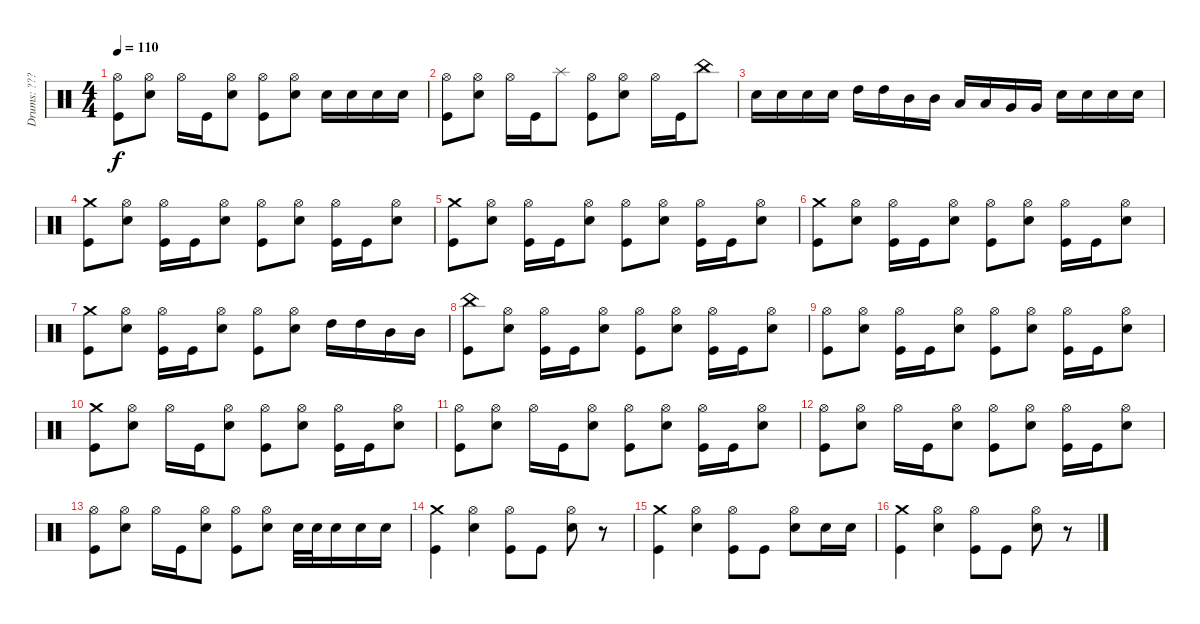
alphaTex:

\track ("Drums: ???" "Drums: ???") {instrument percussion}
\staff {score}
\articulation defaults
\ts (4 4)
\tempo 110
\clef neutral
\ks c
("Hi-Hat (open)" "Kick (hit)").8{dy f} ("Hi-Hat (open)" "Electric Snare (hit)").8 "Hi-Hat (open)".16 "Kick (hit)".16 ("Hi-Hat (open)" "Electric Snare (hit)").8 ("Hi-Hat (open)" "Kick (hit)").8 ("Hi-Hat (open)" "Electric Snare (hit)").8 "Electric Snare (hit)".16 "Electric Snare (hit)".16 "Electric Snare (hit)".16 "Electric Snare (hit)".16 |
("Hi-Hat (open)" "Kick (hit)").8 ("Hi-Hat (open)" "Electric Snare (hit)").8 "Hi-Hat (open)".16 "Kick (hit)".16 "Splash (hit)".8 ("Hi-Hat (open)" "Kick (hit)").8 ("Hi-Hat (open)" "Electric Snare (hit)").8 "Hi-Hat (open)".16 "Kick (hit)".16 "China (hit)".8 |
"Electric Snare (hit)".16 "Electric Snare (hit)".16 "Electric Snare (hit)".16 "Electric Snare (hit)".16 "High Tom (hit)".16 "High Tom (hit)".16 "Mid Tom (hit)".16 "Mid Tom (hit)".16 "Low Tom (hit)".16 "Low Tom (hit)".16 "Very Low Tom (hit)".16 "Very Low Tom (hit)".16 "Electric Snare (hit)".16 "Electric Snare (hit)".16 "Electric Snare (hit)".16 "Electric Snare (hit)".16 |
("Crash medium (hit)" "Kick (hit)").8 ("Hi-Hat (open)" "Electric Snare (hit)").8 ("Hi-Hat (open)" "Kick (hit)").16 "Kick (hit)".16 ("Hi-Hat (open)" "Electric Snare (hit)").8 ("Hi-Hat (open)" "Kick (hit)").8 ("Hi-Hat (open)" "Electric Snare (hit)").8 ("Hi-Hat (open)" "Kick (hit)").16 "Kick (hit)".16 ("Hi-Hat (open)" "Electric Snare (hit)").8 |
("Crash medium (hit)" "Kick (hit)").8 ("Hi-Hat (open)" "Electric Snare (hit)").8 ("Hi-Hat (open)" "Kick (hit)").16 "Kick (hit)".16 ("Hi-Hat (open)" "Electric Snare (hit)").8 ("Hi-Hat (open)" "Kick (hit)").8 ("Hi-Hat (open)" "Electric Snare (hit)").8 ("Hi-Hat (open)" "Kick (hit)").16 "Kick (hit)".16 ("Hi-Hat (open)" "Electric Snare (hit)").8 |
("Crash medium (hit)" "Kick (hit)").8 ("Hi-Hat (open)" "Electric Snare (hit)").8 ("Hi-Hat (open)" "Kick (hit)").16 "Kick (hit)".16 ("Hi-Hat (open)" "Electric Snare (hit)").8 ("Hi-Hat (open)" "Kick (hit)").8 ("Hi-Hat (open)" "Electric Snare (hit)").8 ("Hi-Hat (open)" "Kick (hit)").16 "Kick (hit)".16 ("Hi-Hat (open)" "Electric Snare (hit)").8 |
("Crash medium (hit)" "Kick (hit)").8 ("Hi-Hat (open)" "Electric Snare (hit)").8 ("Hi-Hat (open)" "Kick (hit)").16 "Kick (hit)".16 ("Hi-Hat (open)" "Electric Snare (hit)").8 ("Hi-Hat (open)" "Kick (hit)").8 ("Hi-Hat (open)" "Electric Snare (hit)").8 "High Tom (hit)".16 "High Tom (hit)".16 "Mid Tom (hit)".16 "Mid Tom (hit)".16 |
("China (hit)" "Kick (hit)").8 ("Hi-Hat (open)" "Electric Snare (hit)").8 ("Hi-Hat (open)" "Kick (hit)").16 "Kick (hit)".16 ("Hi-Hat (open)" "Electric Snare (hit)").8 ("Hi-Hat (open)" "Kick (hit)").8 ("Hi-Hat (open)" "Electric Snare (hit)").8 ("Hi-Hat (open)" "Kick (hit)").16 "Kick (hit)".16 ("Hi-Hat (open)" "Electric Snare (hit)").8 |
("Hi-Hat (open)" "Kick (hit)").8 ("Hi-Hat (open)" "Electric Snare (hit)").8 ("Hi-Hat (open)" "Kick (hit)").16 "Kick (hit)".16 ("Hi-Hat (open)" "Electric Snare (hit)").8 ("Hi-Hat (open)" "Kick (hit)").8 ("Hi-Hat (open)" "Electric Snare (hit)").8 ("Hi-Hat (open)" "Kick (hit)").16 "Kick (hit)".16 ("Hi-Hat (open)" "Electric Snare (hit)").8 |
("Crash medium (hit)" "Kick (hit)").8 ("Hi-Hat (open)" "Electric Snare (hit)").8 "Hi-Hat (open)".16 "Kick (hit)".16 ("Hi-Hat (open)" "Electric Snare (hit)").8 ("Hi-Hat (open)" "Kick (hit)").8 ("Hi-Hat (open)" "Electric Snare (hit)").8 ("Hi-Hat (open)" "Kick (hit)").16 "Kick (hit)".16 ("Hi-Hat (open)" "Electric Snare (hit)").8 |
("Hi-Hat (open)" "Kick (hit)").8 ("Hi-Hat (open)" "Electric Snare (hit)").8 "Hi-Hat (open)".16 "Kick (hit)".16 ("Hi-Hat (open)" "Electric Snare (hit)").8 ("Hi-Hat (open)" "Kick (hit)").8 ("Hi-Hat (open)" "Electric Snare (hit)").8 ("Hi-Hat (open)" "Kick (hit)").16 "Kick (hit)".16 ("Hi-Hat (open)" "Electric Snare (hit)").8 |
("Hi-Hat (open)" "Kick (hit)").8 ("Hi-Hat (open)" "Electric Snare (hit)").8 "Hi-Hat (open)".16 "Kick (hit)".16 ("Hi-Hat (open)" "Electric Snare (hit)").8 ("Hi-Hat (open)" "Kick (hit)").8 ("Hi-Hat (open)" "Electric Snare (hit)").8 ("Hi-Hat (open)" "Kick (hit)").16 "Kick (hit)".16 ("Hi-Hat (open)" "Electric Snare (hit)").8 |
("Hi-Hat (open)" "Kick (hit)").8 ("Hi-Hat (open)" "Electric Snare (hit)").8 "Hi-Hat (open)".16 "Kick (hit)".16 ("Hi-Hat (open)" "Electric Snare (hit)").8 ("Hi-Hat (open)" "Kick (hit)").8 ("Hi-Hat (open)" "Electric Snare (hit)").8 "Electric Snare (hit)".32 "Electric Snare (hit)".32 "Electric Snare (hit)".16 "Electric Snare (hit)".16 "Electric Snare (hit)".16 |
("Crash medium (hit)" "Kick (hit)").4 ("Electric Snare (hit)" "Hi-Hat (open)").4 ("Kick (hit)" "Hi-Hat (open)").8 "Kick (hit)".8 ("Electric Snare (hit)" "Hi-Hat (open)").8 r.8 |
("Crash medium (hit)" "Kick (hit)").4 ("Electric Snare (hit)" "Hi-Hat (open)").4 ("Kick (hit)" "Hi-Hat (open)").8 "Kick (hit)".8 ("Electric Snare (hit)" "Hi-Hat (open)").8 "Electric Snare (hit)".16 "Electric Snare (hit)".16 |
("Crash medium (hit)" "Kick (hit)").4 ("Electric Snare (hit)" "Hi-Hat (open)").4 ("Kick (hit)" "Hi-Hat (open)").8 "Kick (hit)".8 ("Electric Snare (hit)" "Hi-Hat (open)").8 r.8
